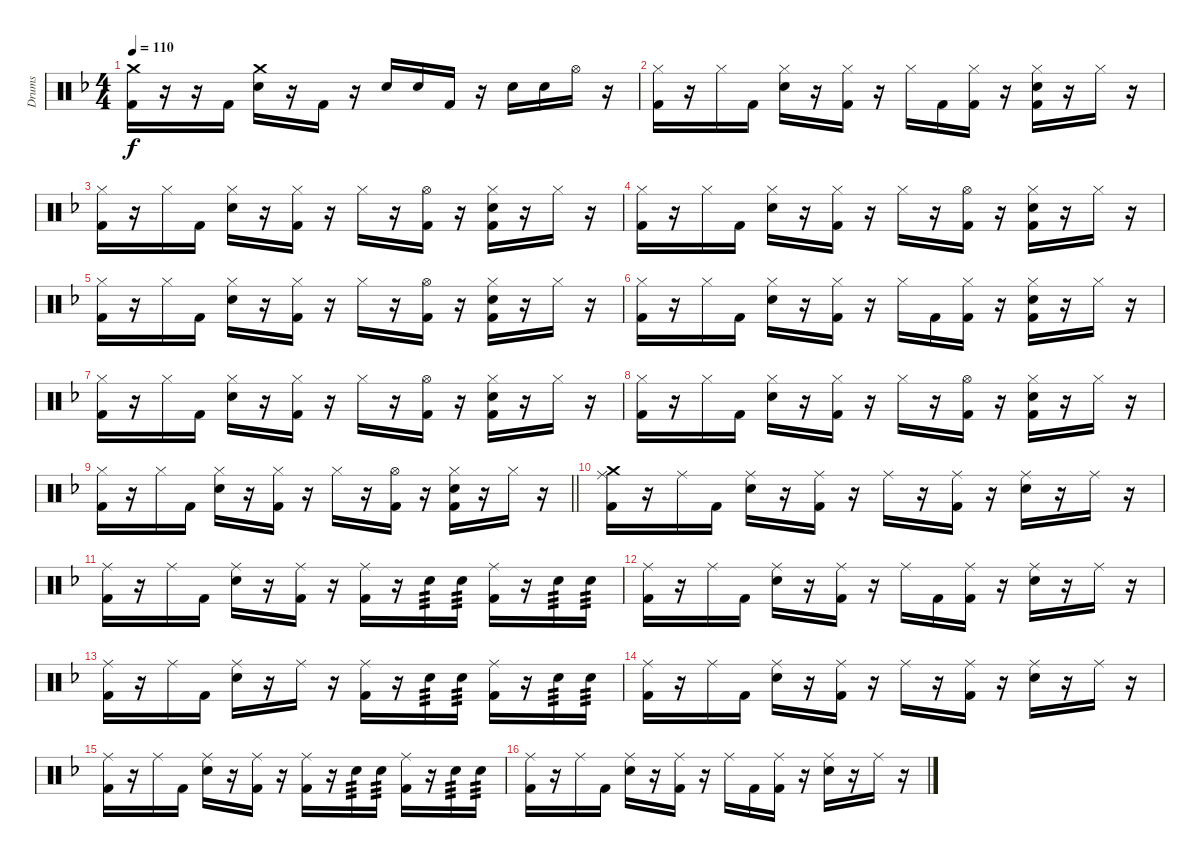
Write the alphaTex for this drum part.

\track ("Drums" "Drums") {instrument percussion}
\staff {score}
\articulation defaults
\ts (4 4)
\tempo 110
\clef neutral
\ks dminor
("Crash medium (hit)" "Kick (hit) 2").16{dy f} r.16 r.16 "Kick (hit) 2".16 ("Crash medium (hit)" "Snare (hit) 2").16 r.16 "Kick (hit) 2".16 r.16 "Snare (hit) 2".16 "Snare (hit) 2".16 "Kick (hit) 2".16 r.16 "Snare (hit) 2".16 "Snare (hit) 2".16 "Hi-Hat (open)".16 r.16 |
("Hi-Hat (closed)" "Kick (hit) 2").16 r.16 "Hi-Hat (closed)".16 "Kick (hit) 2".16 ("Hi-Hat (closed)" "Snare (hit) 2").16 r.16 ("Hi-Hat (closed)" "Kick (hit) 2").16 r.16 "Hi-Hat (closed)".16 "Kick (hit) 2".16 ("Hi-Hat (closed)" "Kick (hit) 2").16 r.16 ("Hi-Hat (closed)" "Snare (hit) 2" "Kick (hit) 2").16 r.16 "Hi-Hat (closed)".16 r.16 |
("Hi-Hat (closed)" "Kick (hit) 2").16 r.16 "Hi-Hat (closed)".16 "Kick (hit) 2".16 ("Hi-Hat (closed)" "Snare (hit) 2").16 r.16 ("Hi-Hat (closed)" "Kick (hit) 2").16 r.16 "Hi-Hat (closed)".16 r.16 ("Hi-Hat (open)" "Kick (hit) 2").16 r.16 ("Hi-Hat (closed)" "Snare (hit) 2" "Kick (hit) 2").16 r.16 "Hi-Hat (closed)".16 r.16 |
("Hi-Hat (closed)" "Kick (hit) 2").16 r.16 "Hi-Hat (closed)".16 "Kick (hit) 2".16 ("Hi-Hat (closed)" "Snare (hit) 2").16 r.16 ("Hi-Hat (closed)" "Kick (hit) 2").16 r.16 "Hi-Hat (closed)".16 r.16 ("Hi-Hat (open)" "Kick (hit) 2").16 r.16 ("Hi-Hat (closed)" "Snare (hit) 2" "Kick (hit) 2").16 r.16 "Hi-Hat (closed)".16 r.16 |
("Hi-Hat (closed)" "Kick (hit) 2").16 r.16 "Hi-Hat (closed)".16 "Kick (hit) 2".16 ("Hi-Hat (closed)" "Snare (hit) 2").16 r.16 ("Hi-Hat (closed)" "Kick (hit) 2").16 r.16 "Hi-Hat (closed)".16 r.16 ("Hi-Hat (open)" "Kick (hit) 2").16 r.16 ("Hi-Hat (closed)" "Snare (hit) 2" "Kick (hit) 2").16 r.16 "Hi-Hat (closed)".16 r.16 |
("Hi-Hat (closed)" "Kick (hit) 2").16 r.16 "Hi-Hat (closed)".16 "Kick (hit) 2".16 ("Hi-Hat (closed)" "Snare (hit) 2").16 r.16 ("Hi-Hat (closed)" "Kick (hit) 2").16 r.16 "Hi-Hat (closed)".16 "Kick (hit) 2".16 ("Hi-Hat (closed)" "Kick (hit) 2").16 r.16 ("Hi-Hat (closed)" "Snare (hit) 2" "Kick (hit) 2").16 r.16 "Hi-Hat (closed)".16 r.16 |
("Hi-Hat (closed)" "Kick (hit) 2").16 r.16 "Hi-Hat (closed)".16 "Kick (hit) 2".16 ("Hi-Hat (closed)" "Snare (hit) 2").16 r.16 ("Hi-Hat (closed)" "Kick (hit) 2").16 r.16 "Hi-Hat (closed)".16 r.16 ("Hi-Hat (open)" "Kick (hit) 2").16 r.16 ("Hi-Hat (closed)" "Snare (hit) 2" "Kick (hit) 2").16 r.16 "Hi-Hat (closed)".16 r.16 |
("Hi-Hat (closed)" "Kick (hit) 2").16 r.16 "Hi-Hat (closed)".16 "Kick (hit) 2".16 ("Hi-Hat (closed)" "Snare (hit) 2").16 r.16 ("Hi-Hat (closed)" "Kick (hit) 2").16 r.16 "Hi-Hat (closed)".16 r.16 ("Hi-Hat (open)" "Kick (hit) 2").16 r.16 ("Hi-Hat (closed)" "Snare (hit) 2" "Kick (hit) 2").16 r.16 "Hi-Hat (closed)".16 r.16 |
\barLineRight lightlight
("Hi-Hat (closed)" "Kick (hit) 2").16 r.16 "Hi-Hat (closed)".16 "Kick (hit) 2".16 ("Hi-Hat (closed)" "Snare (hit) 2").16 r.16 ("Hi-Hat (closed)" "Kick (hit) 2").16 r.16 "Hi-Hat (closed)".16 r.16 ("Hi-Hat (open)" "Kick (hit) 2").16 r.16 ("Hi-Hat (closed)" "Snare (hit) 2" "Kick (hit) 2").16 r.16 "Hi-Hat (closed)".16 r.16 |
("Crash medium (hit)" "Ride (middle)" "Kick (hit) 2").16 r.16 "Ride (middle)".16 "Kick (hit) 2".16 ("Ride (middle)" "Snare (hit) 2").16 r.16 ("Ride (middle)" "Kick (hit) 2").16 r.16 "Ride (middle)".16 r.16 ("Ride (middle)" "Kick (hit) 2").16 r.16 ("Ride (middle)" "Snare (hit) 2").16 r.16 "Ride (middle)".16 r.16 |
("Ride (middle)" "Kick (hit) 2").16 r.16 "Ride (middle)".16 "Kick (hit) 2".16 ("Ride (middle)" "Snare (hit) 2").16 r.16 ("Ride (middle)" "Kick (hit) 2").16 r.16 ("Ride (middle)" "Kick (hit) 2").16 r.16 "Snare (hit) 2".16{tp 3} "Snare (hit) 2".16{tp 3} ("Ride (middle)" "Kick (hit) 2").16 r.16 "Snare (hit) 2".16{tp 3} "Snare (hit) 2".16{tp 3} |
("Ride (middle)" "Kick (hit) 2").16 r.16 "Ride (middle)".16 "Kick (hit) 2".16 ("Ride (middle)" "Snare (hit) 2").16 r.16 ("Ride (middle)" "Kick (hit) 2").16 r.16 "Ride (middle)".16 "Kick (hit) 2".16 ("Ride (middle)" "Kick (hit) 2").16 r.16 ("Ride (middle)" "Snare (hit) 2").16 r.16 "Ride (middle)".16 r.16 |
("Ride (middle)" "Kick (hit) 2").16 r.16 "Ride (middle)".16 "Kick (hit) 2".16 ("Ride (middle)" "Snare (hit) 2").16 r.16 "Ride (middle)".16 r.16 ("Ride (middle)" "Kick (hit) 2").16 r.16 "Snare (hit) 2".16{tp 3} "Snare (hit) 2".16{tp 3} ("Ride (middle)" "Kick (hit) 2").16 r.16 "Snare (hit) 2".16{tp 3} "Snare (hit) 2".16{tp 3} |
("Ride (middle)" "Kick (hit) 2").16 r.16 "Ride (middle)".16 "Kick (hit) 2".16 ("Ride (middle)" "Snare (hit) 2").16 r.16 ("Ride (middle)" "Kick (hit) 2").16 r.16 "Ride (middle)".16 r.16 ("Ride (middle)" "Kick (hit) 2").16 r.16 ("Ride (middle)" "Snare (hit) 2").16 r.16 "Ride (middle)".16 r.16 |
("Ride (middle)" "Kick (hit) 2").16 r.16 "Ride (middle)".16 "Kick (hit) 2".16 ("Ride (middle)" "Snare (hit) 2").16 r.16 ("Ride (middle)" "Kick (hit) 2").16 r.16 ("Ride (middle)" "Kick (hit) 2").16 r.16 "Snare (hit) 2".16{tp 3} "Snare (hit) 2".16{tp 3} ("Ride (middle)" "Kick (hit) 2").16 r.16 "Snare (hit) 2".16{tp 3} "Snare (hit) 2".16{tp 3} |
("Ride (middle)" "Kick (hit) 2").16 r.16 "Ride (middle)".16 "Kick (hit) 2".16 ("Ride (middle)" "Snare (hit) 2").16 r.16 ("Ride (middle)" "Kick (hit) 2").16 r.16 "Ride (middle)".16 "Kick (hit) 2".16 ("Ride (middle)" "Kick (hit) 2").16 r.16 ("Ride (middle)" "Snare (hit) 2").16 r.16 "Ride (middle)".16 r.16
